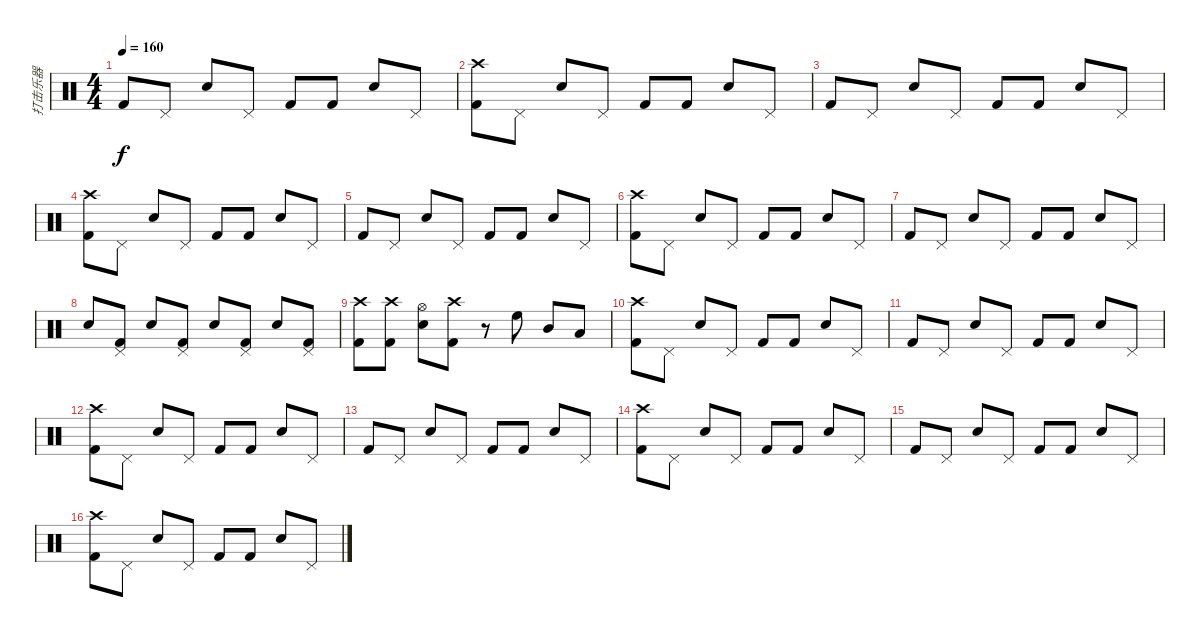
\track ("打击乐器" "打击乐器") {instrument percussion}
\staff {score}
\articulation defaults
\ts (4 4)
\tempo 160
\clef neutral
\ks c "Kick (hit) 2".8{dy f} "Pedal Hi-Hat (hit)".8 "Snare (hit) 2".8 "Pedal Hi-Hat (hit)".8 "Kick (hit) 2".8 "Kick (hit) 2".8 "Snare (hit) 2".8 "Pedal Hi-Hat (hit)".8
|
("Crash high (hit)" "Kick (hit) 2").8 "Pedal Hi-Hat (hit)".8 "Snare (hit) 2".8 "Pedal Hi-Hat (hit)".8 "Kick (hit) 2".8 "Kick (hit) 2".8 "Snare (hit) 2".8 "Pedal Hi-Hat (hit)".8 |
"Kick (hit) 2".8 "Pedal Hi-Hat (hit)".8 "Snare (hit) 2".8 "Pedal Hi-Hat (hit)".8 "Kick (hit) 2".8 "Kick (hit) 2".8 "Snare (hit) 2".8 "Pedal Hi-Hat (hit)".8 |
("Crash high (hit)" "Kick (hit) 2").8 "Pedal Hi-Hat (hit)".8 "Snare (hit) 2".8 "Pedal Hi-Hat (hit)".8 "Kick (hit) 2".8 "Kick (hit) 2".8 "Snare (hit) 2".8 "Pedal Hi-Hat (hit)".8 |
"Kick (hit) 2".8 "Pedal Hi-Hat (hit)".8 "Snare (hit) 2".8 "Pedal Hi-Hat (hit)".8 "Kick (hit) 2".8 "Kick (hit) 2".8 "Snare (hit) 2".8 "Pedal Hi-Hat (hit)".8 |
("Crash high (hit)" "Kick (hit) 2").8 "Pedal Hi-Hat (hit)".8 "Snare (hit) 2".8 "Pedal Hi-Hat (hit)".8 "Kick (hit) 2".8 "Kick (hit) 2".8 "Snare (hit) 2".8 "Pedal Hi-Hat (hit)".8 |
"Kick (hit) 2".8 "Pedal Hi-Hat (hit)".8 "Snare (hit) 2".8 "Pedal Hi-Hat (hit)".8 "Kick (hit) 2".8 "Kick (hit) 2".8 "Snare (hit) 2".8 "Pedal Hi-Hat (hit)".8 |
"Snare (hit) 2".8 ("Pedal Hi-Hat (hit)" "Kick (hit) 2").8 "Snare (hit) 2".8 ("Pedal Hi-Hat (hit)" "Kick (hit) 2").8 "Snare (hit) 2".8 ("Pedal Hi-Hat (hit)" "Kick (hit) 2").8 "Snare (hit) 2".8 ("Pedal Hi-Hat (hit)" "Kick (hit) 2").8 |
("Crash high (hit)" "Kick (hit) 2").8 ("Crash high (hit)" "Kick (hit) 2").8 ("Hi-Hat (open)" "Snare (hit) 2").8 ("Crash high (hit)" "Kick (hit) 2").8 r.8 "High Floor Tom (hit)".8 "Mid Tom (hit)".8 "Low Tom (hit)".8 |
("Crash high (hit)" "Kick (hit) 2").8 "Pedal Hi-Hat (hit)".8 "Snare (hit) 2".8 "Pedal Hi-Hat (hit)".8 "Kick (hit) 2".8 "Kick (hit) 2".8 "Snare (hit) 2".8 "Pedal Hi-Hat (hit)".8 |
"Kick (hit) 2".8 "Pedal Hi-Hat (hit)".8 "Snare (hit) 2".8 "Pedal Hi-Hat (hit)".8 "Kick (hit) 2".8 "Kick (hit) 2".8 "Snare (hit) 2".8 "Pedal Hi-Hat (hit)".8 |
("Crash high (hit)" "Kick (hit) 2").8 "Pedal Hi-Hat (hit)".8 "Snare (hit) 2".8 "Pedal Hi-Hat (hit)".8 "Kick (hit) 2".8 "Kick (hit) 2".8 "Snare (hit) 2".8 "Pedal Hi-Hat (hit)".8 |
"Kick (hit) 2".8 "Pedal Hi-Hat (hit)".8 "Snare (hit) 2".8 "Pedal Hi-Hat (hit)".8 "Kick (hit) 2".8 "Kick (hit) 2".8 "Snare (hit) 2".8 "Pedal Hi-Hat (hit)".8 |
("Crash high (hit)" "Kick (hit) 2").8 "Pedal Hi-Hat (hit)".8 "Snare (hit) 2".8 "Pedal Hi-Hat (hit)".8 "Kick (hit) 2".8 "Kick (hit) 2".8 "Snare (hit) 2".8 "Pedal Hi-Hat (hit)".8 |
"Kick (hit) 2".8 "Pedal Hi-Hat (hit)".8 "Snare (hit) 2".8 "Pedal Hi-Hat (hit)".8 "Kick (hit) 2".8 "Kick (hit) 2".8 "Snare (hit) 2".8 "Pedal Hi-Hat (hit)".8 |
("Crash high (hit)" "Kick (hit) 2").8 "Pedal Hi-Hat (hit)".8 "Snare (hit) 2".8 "Pedal Hi-Hat (hit)".8 "Kick (hit) 2".8 "Kick (hit) 2".8 "Snare (hit) 2".8 "Pedal Hi-Hat (hit)".8
